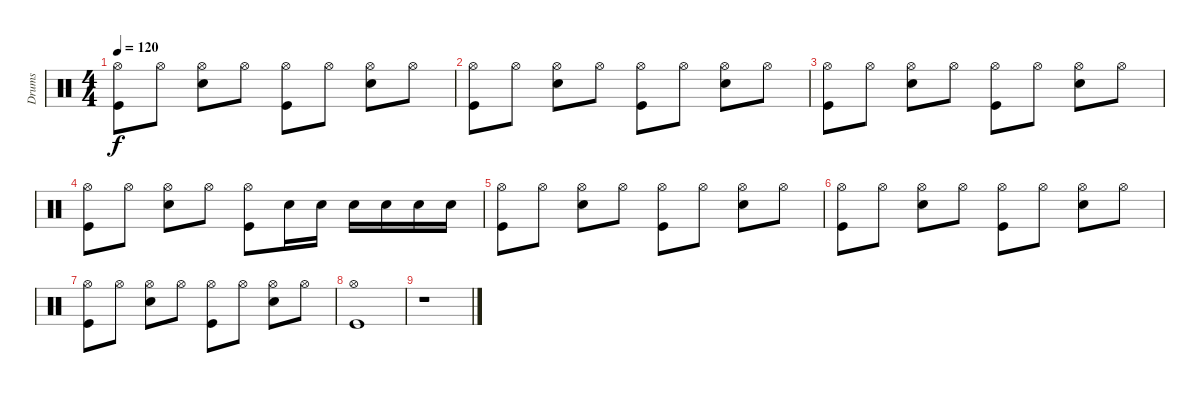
\track ("Drums" "Drums") {instrument percussion}
\staff {score}
\articulation defaults
\ts (4 4)
\tempo 120
\clef neutral
\ks c
("Hi-Hat (open)" "Kick (hit)").8{dy f} "Hi-Hat (open)".8 ("Hi-Hat (open)" "Snare (hit) 2").8 "Hi-Hat (open)".8 ("Hi-Hat (open)" "Kick (hit)").8 "Hi-Hat (open)".8 ("Hi-Hat (open)" "Snare (hit) 2").8 "Hi-Hat (open)".8 |
("Hi-Hat (open)" "Kick (hit)").8 "Hi-Hat (open)".8 ("Hi-Hat (open)" "Snare (hit) 2").8 "Hi-Hat (open)".8 ("Hi-Hat (open)" "Kick (hit)").8 "Hi-Hat (open)".8 ("Hi-Hat (open)" "Snare (hit) 2").8 "Hi-Hat (open)".8 |
("Hi-Hat (open)" "Kick (hit)").8 "Hi-Hat (open)".8 ("Hi-Hat (open)" "Snare (hit) 2").8 "Hi-Hat (open)".8 ("Hi-Hat (open)" "Kick (hit)").8 "Hi-Hat (open)".8 ("Hi-Hat (open)" "Snare (hit) 2").8 "Hi-Hat (open)".8 |
("Hi-Hat (open)" "Kick (hit)").8 "Hi-Hat (open)".8 ("Hi-Hat (open)" "Snare (hit) 2").8 "Hi-Hat (open)".8 ("Hi-Hat (open)" "Kick (hit)").8 "Snare (hit) 2".16 "Snare (hit) 2".16 "Snare (hit) 2".16 "Snare (hit) 2".16 "Snare (hit) 2".16 "Snare (hit) 2".16 |
("Hi-Hat (open)" "Kick (hit)").8 "Hi-Hat (open)".8 ("Hi-Hat (open)" "Snare (hit) 2").8 "Hi-Hat (open)".8 ("Hi-Hat (open)" "Kick (hit)").8 "Hi-Hat (open)".8 ("Hi-Hat (open)" "Snare (hit) 2").8 "Hi-Hat (open)".8 |
("Hi-Hat (open)" "Kick (hit)").8 "Hi-Hat (open)".8 ("Hi-Hat (open)" "Snare (hit) 2").8 "Hi-Hat (open)".8 ("Hi-Hat (open)" "Kick (hit)").8 "Hi-Hat (open)".8 ("Hi-Hat (open)" "Snare (hit) 2").8 "Hi-Hat (open)".8 |
("Hi-Hat (open)" "Kick (hit)").8 "Hi-Hat (open)".8 ("Hi-Hat (open)" "Snare (hit) 2").8 "Hi-Hat (open)".8 ("Hi-Hat (open)" "Kick (hit)").8 "Hi-Hat (open)".8 ("Hi-Hat (open)" "Snare (hit) 2").8 "Hi-Hat (open)".8 |
("Hi-Hat (open)" "Kick (hit)").1 |
r.1
